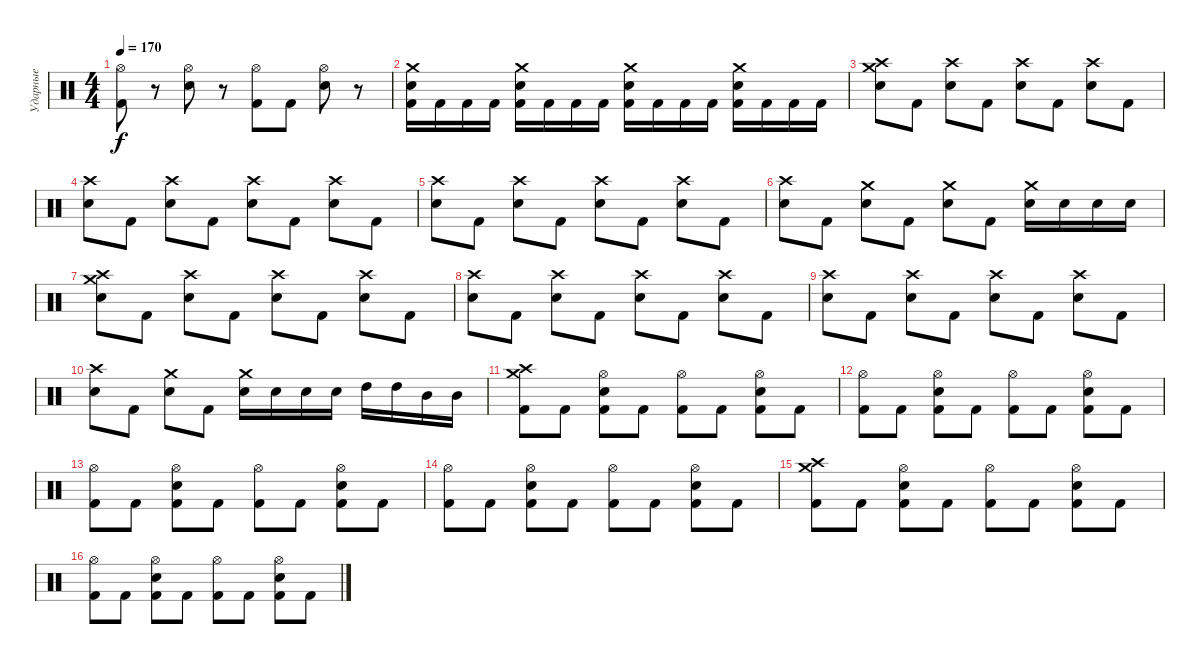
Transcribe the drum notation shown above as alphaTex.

\track ("Ударные" "Ударные") {instrument percussion}
\staff {score}
\articulation defaults
\ts (4 4)
\tempo 170
\clef neutral
\ks c
("Hi-Hat (open)" "Kick (hit) 2").8{dy f} r.8 ("Hi-Hat (open)" "Electric Snare (hit)").8 r.8 ("Hi-Hat (open)" "Kick (hit) 2").8 "Kick (hit) 2".8 ("Hi-Hat (open)" "Electric Snare (hit)").8 r.8 |
("Crash medium (hit)" "Electric Snare (hit)" "Kick (hit) 2").16 "Kick (hit) 2".16 "Kick (hit) 2".16 "Kick (hit) 2".16 ("Crash medium (hit)" "Electric Snare (hit)" "Kick (hit) 2").16 "Kick (hit) 2".16 "Kick (hit) 2".16 "Kick (hit) 2".16 ("Crash medium (hit)" "Electric Snare (hit)" "Kick (hit) 2").16 "Kick (hit) 2".16 "Kick (hit) 2".16 "Kick (hit) 2".16 ("Crash medium (hit)" "Electric Snare (hit)" "Kick (hit) 2").16 "Kick (hit) 2".16 "Kick (hit) 2".16 "Kick (hit) 2".16 |
("Crash medium (hit)" "Crash high (hit)" "Electric Snare (hit)").8 "Kick (hit) 2".8 ("Crash high (hit)" "Electric Snare (hit)").8 "Kick (hit) 2".8 ("Crash high (hit)" "Electric Snare (hit)").8 "Kick (hit) 2".8 ("Crash high (hit)" "Electric Snare (hit)").8 "Kick (hit) 2".8 |
("Crash high (hit)" "Electric Snare (hit)").8 "Kick (hit) 2".8 ("Crash high (hit)" "Electric Snare (hit)").8 "Kick (hit) 2".8 ("Crash high (hit)" "Electric Snare (hit)").8 "Kick (hit) 2".8 ("Crash high (hit)" "Electric Snare (hit)").8 "Kick (hit) 2".8 |
("Crash high (hit)" "Electric Snare (hit)").8 "Kick (hit) 2".8 ("Crash high (hit)" "Electric Snare (hit)").8 "Kick (hit) 2".8 ("Crash high (hit)" "Electric Snare (hit)").8 "Kick (hit) 2".8 ("Crash high (hit)" "Electric Snare (hit)").8 "Kick (hit) 2".8 |
("Crash high (hit)" "Electric Snare (hit)").8 "Kick (hit) 2".8 ("Crash medium (hit)" "Electric Snare (hit)").8 "Kick (hit) 2".8 ("Crash medium (hit)" "Electric Snare (hit)").8 "Kick (hit) 2".8 ("Crash medium (hit)" "Electric Snare (hit)").16 "Electric Snare (hit)".16 "Electric Snare (hit)".16 "Electric Snare (hit)".16 |
("Crash medium (hit)" "Crash high (hit)" "Electric Snare (hit)").8 "Kick (hit) 2".8 ("Crash high (hit)" "Electric Snare (hit)").8 "Kick (hit) 2".8 ("Crash high (hit)" "Electric Snare (hit)").8 "Kick (hit) 2".8 ("Crash high (hit)" "Electric Snare (hit)").8 "Kick (hit) 2".8 |
("Crash high (hit)" "Electric Snare (hit)").8 "Kick (hit) 2".8 ("Crash high (hit)" "Electric Snare (hit)").8 "Kick (hit) 2".8 ("Crash high (hit)" "Electric Snare (hit)").8 "Kick (hit) 2".8 ("Crash high (hit)" "Electric Snare (hit)").8 "Kick (hit) 2".8 |
("Crash high (hit)" "Electric Snare (hit)").8 "Kick (hit) 2".8 ("Crash high (hit)" "Electric Snare (hit)").8 "Kick (hit) 2".8 ("Crash high (hit)" "Electric Snare (hit)").8 "Kick (hit) 2".8 ("Crash high (hit)" "Electric Snare (hit)").8 "Kick (hit) 2".8 |
("Crash high (hit)" "Electric Snare (hit)").8 "Kick (hit) 2".8 ("Crash medium (hit)" "Electric Snare (hit)").8 "Kick (hit) 2".8 ("Crash medium (hit)" "Electric Snare (hit)").16 "Electric Snare (hit)".16 "Electric Snare (hit)".16 "Electric Snare (hit)".16 "High Tom (hit)".16 "High Tom (hit)".16 "Mid Tom (hit)".16 "Mid Tom (hit)".16 |
("Crash medium (hit)" "Crash high (hit)" "Kick (hit) 2").8 "Kick (hit) 2".8 ("Hi-Hat (open)" "Electric Snare (hit)" "Kick (hit) 2").8 "Kick (hit) 2".8 ("Hi-Hat (open)" "Kick (hit) 2").8 "Kick (hit) 2".8 ("Hi-Hat (open)" "Electric Snare (hit)" "Kick (hit) 2").8 "Kick (hit) 2".8 |
("Hi-Hat (open)" "Kick (hit) 2").8 "Kick (hit) 2".8 ("Hi-Hat (open)" "Electric Snare (hit)" "Kick (hit) 2").8 "Kick (hit) 2".8 ("Hi-Hat (open)" "Kick (hit) 2").8 "Kick (hit) 2".8 ("Hi-Hat (open)" "Electric Snare (hit)" "Kick (hit) 2").8 "Kick (hit) 2".8 |
("Hi-Hat (open)" "Kick (hit) 2").8 "Kick (hit) 2".8 ("Hi-Hat (open)" "Electric Snare (hit)" "Kick (hit) 2").8 "Kick (hit) 2".8 ("Hi-Hat (open)" "Kick (hit) 2").8 "Kick (hit) 2".8 ("Hi-Hat (open)" "Electric Snare (hit)" "Kick (hit) 2").8 "Kick (hit) 2".8 |
("Hi-Hat (open)" "Kick (hit) 2").8 "Kick (hit) 2".8 ("Hi-Hat (open)" "Electric Snare (hit)" "Kick (hit) 2").8 "Kick (hit) 2".8 ("Hi-Hat (open)" "Kick (hit) 2").8 "Kick (hit) 2".8 ("Hi-Hat (open)" "Electric Snare (hit)" "Kick (hit) 2").8 "Kick (hit) 2".8 |
("Crash medium (hit)" "Crash high (hit)" "Kick (hit) 2").8 "Kick (hit) 2".8 ("Hi-Hat (open)" "Electric Snare (hit)" "Kick (hit) 2").8 "Kick (hit) 2".8 ("Hi-Hat (open)" "Kick (hit) 2").8 "Kick (hit) 2".8 ("Hi-Hat (open)" "Electric Snare (hit)" "Kick (hit) 2").8 "Kick (hit) 2".8 |
("Hi-Hat (open)" "Kick (hit) 2").8 "Kick (hit) 2".8 ("Hi-Hat (open)" "Electric Snare (hit)" "Kick (hit) 2").8 "Kick (hit) 2".8 ("Hi-Hat (open)" "Kick (hit) 2").8 "Kick (hit) 2".8 ("Hi-Hat (open)" "Electric Snare (hit)" "Kick (hit) 2").8 "Kick (hit) 2".8
